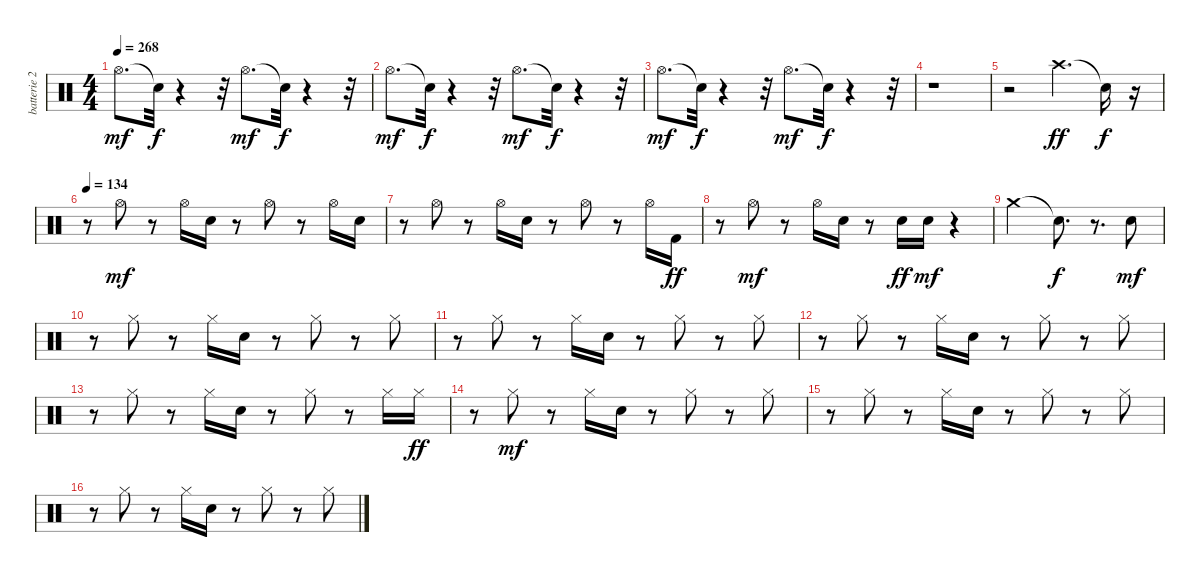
\track ("batterie 2" "batterie 2") {instrument percussion}
\staff {score}
\articulation defaults
\ts (4 4)
\tempo 268
\clef neutral
\ks c "Hi-Hat (open)".8{d dy mf} "Snare (hit)"{t}.32{dy f}
r.4 r.32 "Hi-Hat (open)".8{d dy mf} "Snare (hit)"{t}.32{dy f} r.4 r.32 |
"Hi-Hat (open)".8{d dy mf} "Snare (hit)"{t}.32{dy f} r.4 r.32 "Hi-Hat (open)".8{d dy mf} "Snare (hit)"{t}.32{dy f} r.4 r.32 |
"Hi-Hat (open)".8{d dy mf} "Snare (hit)"{t}.32{dy f} r.4 r.32 "Hi-Hat (open)".8{d dy mf} "Snare (hit)"{t}.32{dy f} r.4 r.32 |
r.1 |
r.2 "Crash high (hit)".4{d dy ff} "Snare (hit)"{t}.16{dy f} r.16 |
\tempo 134
r.8 "Hi-Hat (open)".8{dy mf} r.8 "Hi-Hat (open)".16 "Electric Snare (hit)".16 r.8 "Hi-Hat (open)".8 r.8 "Hi-Hat (open)".16 "Electric Snare (hit)".16 |
r.8 "Hi-Hat (open)".8 r.8 "Hi-Hat (open)".16 "Electric Snare (hit)".16 r.8 "Hi-Hat (open)".8 r.8 "Hi-Hat (open)".16 "Kick (hit) 2".16{dy ff} |
r.8 "Hi-Hat (open)".8{dy mf} r.8 "Hi-Hat (open)".16 "Electric Snare (hit)".16 r.8 "Electric Snare (hit)".16{dy ff} "Electric Snare (hit)".16{dy mf} r.4 |
"Crash medium (hit)".2 "Snare (hit)"{t}.8{d dy f} r.8{d} "Electric Snare (hit)".8{dy mf} |
r.8 "Hi-Hat (closed)".8 r.8 "Hi-Hat (closed)".16 "Electric Snare (hit)".16 r.8 "Hi-Hat (closed)".8 r.8 "Hi-Hat (closed)".8 |
r.8 "Hi-Hat (closed)".8 r.8 "Hi-Hat (closed)".16 "Electric Snare (hit)".16 r.8 "Hi-Hat (closed)".8 r.8 "Hi-Hat (closed)".8 |
r.8 "Hi-Hat (closed)".8 r.8 "Hi-Hat (closed)".16 "Electric Snare (hit)".16 r.8 "Hi-Hat (closed)".8 r.8 "Hi-Hat (closed)".8 |
r.8 "Hi-Hat (closed)".8 r.8 "Hi-Hat (closed)".16 "Electric Snare (hit)".16 r.8 "Hi-Hat (closed)".8 r.8 "Hi-Hat (closed)".16 "Hi-Hat (closed)".16{dy ff} |
r.8 "Hi-Hat (closed)".8{dy mf} r.8 "Hi-Hat (closed)".16 "Electric Snare (hit)".16 r.8 "Hi-Hat (closed)".8 r.8 "Hi-Hat (closed)".8 |
r.8 "Hi-Hat (closed)".8 r.8 "Hi-Hat (closed)".16 "Electric Snare (hit)".16 r.8 "Hi-Hat (closed)".8 r.8 "Hi-Hat (closed)".8 |
r.8 "Hi-Hat (closed)".8 r.8 "Hi-Hat (closed)".16 "Electric Snare (hit)".16 r.8 "Hi-Hat (closed)".8 r.8 "Hi-Hat (closed)".8
